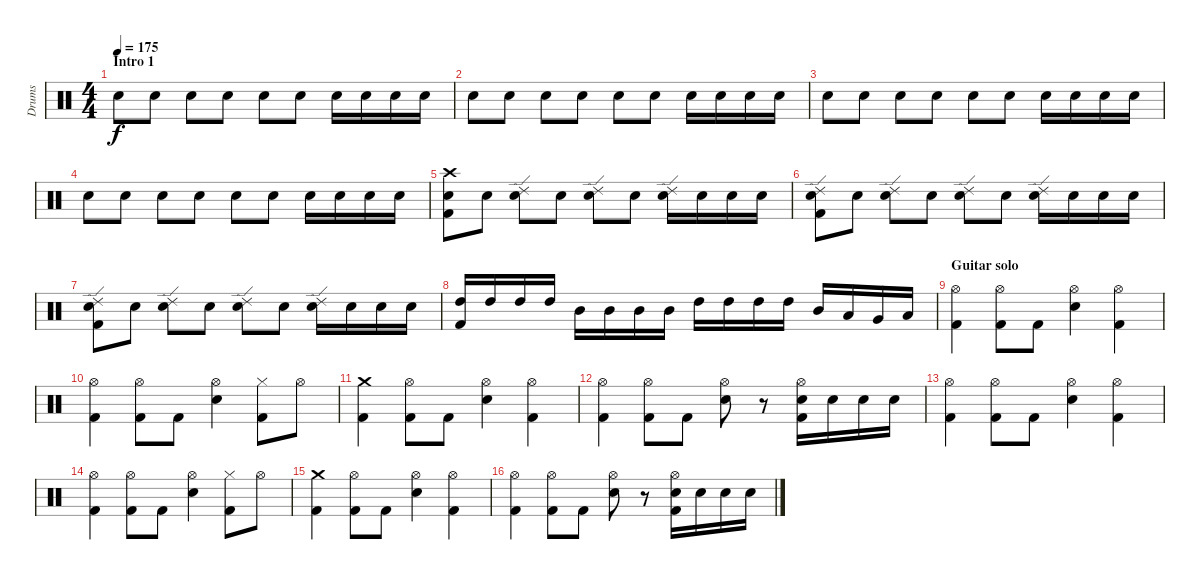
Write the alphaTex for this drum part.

\track ("Drums" "Drums") {instrument percussion}
\staff {score}
\articulation defaults
\ts (4 4)
\section ("" "Intro 1")
\tempo 175
\clef neutral
\ks c "Electric Snare (hit)".8{dy f} "Electric Snare (hit)".8 "Electric Snare (hit)".8 "Electric Snare (hit)".8 "Electric Snare (hit)".8 "Electric Snare (hit)".8 "Electric Snare (hit)".16 "Electric Snare (hit)".16 "Electric Snare (hit)".16 "Electric Snare (hit)".16
|
"Electric Snare (hit)".8 "Electric Snare (hit)".8 "Electric Snare (hit)".8 "Electric Snare (hit)".8 "Electric Snare (hit)".8 "Electric Snare (hit)".8 "Electric Snare (hit)".16 "Electric Snare (hit)".16 "Electric Snare (hit)".16 "Electric Snare (hit)".16 |
"Electric Snare (hit)".8 "Electric Snare (hit)".8 "Electric Snare (hit)".8 "Electric Snare (hit)".8 "Electric Snare (hit)".8 "Electric Snare (hit)".8 "Electric Snare (hit)".16 "Electric Snare (hit)".16 "Electric Snare (hit)".16 "Electric Snare (hit)".16 |
"Electric Snare (hit)".8 "Electric Snare (hit)".8 "Electric Snare (hit)".8 "Electric Snare (hit)".8 "Electric Snare (hit)".8 "Electric Snare (hit)".8 "Electric Snare (hit)".16 "Electric Snare (hit)".16 "Electric Snare (hit)".16 "Electric Snare (hit)".16 |
("Kick (hit) 2" "Electric Snare (hit)" "Crash high (hit)").8 "Electric Snare (hit)".8 ("Electric Snare (hit)" "Ride (edge) 2").8 "Electric Snare (hit)".8 ("Electric Snare (hit)" "Ride (edge) 2").8 "Electric Snare (hit)".8 ("Electric Snare (hit)" "Ride (edge) 2").16 "Electric Snare (hit)".16 "Electric Snare (hit)".16 "Electric Snare (hit)".16 |
("Kick (hit) 2" "Electric Snare (hit)" "Ride (edge) 2").8 "Electric Snare (hit)".8 ("Electric Snare (hit)" "Ride (edge) 2").8 "Electric Snare (hit)".8 ("Electric Snare (hit)" "Ride (edge) 2").8 "Electric Snare (hit)".8 ("Electric Snare (hit)" "Ride (edge) 2").16 "Electric Snare (hit)".16 "Electric Snare (hit)".16 "Electric Snare (hit)".16 |
("Kick (hit) 2" "Electric Snare (hit)" "Ride (edge) 2").8 "Electric Snare (hit)".8 ("Electric Snare (hit)" "Ride (edge) 2").8 "Electric Snare (hit)".8 ("Electric Snare (hit)" "Ride (edge) 2").8 "Electric Snare (hit)".8 ("Electric Snare (hit)" "Ride (edge) 2").16 "Electric Snare (hit)".16 "Electric Snare (hit)".16 "Electric Snare (hit)".16 |
("Kick (hit) 2" "High Tom (hit)").16 "High Tom (hit)".16 "High Tom (hit)".16 "High Tom (hit)".16 "Mid Tom (hit)".16 "Mid Tom (hit)".16 "Mid Tom (hit)".16 "Mid Tom (hit)".16 "High Tom (hit)".16 "High Tom (hit)".16 "High Tom (hit)".16 "High Tom (hit)".16 "Mid Tom (hit)".16 "Low Tom (hit)".16 "Very Low Tom (hit)".16 "Low Floor Tom (hit)".16 |
\section ("" "Guitar solo")
("Kick (hit) 2" "Hi-Hat (open)").4 ("Kick (hit) 2" "Hi-Hat (open)").8 "Kick (hit) 2".8 ("Electric Snare (hit)" "Hi-Hat (open)").4 ("Kick (hit) 2" "Hi-Hat (open)").4 |
("Kick (hit) 2" "Hi-Hat (open)").4 ("Kick (hit) 2" "Hi-Hat (open)").8 "Kick (hit) 2".8 ("Electric Snare (hit)" "Hi-Hat (open)").4 ("Kick (hit) 2" "Hi-Hat (closed)").8 "Hi-Hat (open)".8 |
("Kick (hit) 2" "Crash medium (hit)").4 ("Kick (hit) 2" "Hi-Hat (open)").8 "Kick (hit) 2".8 ("Electric Snare (hit)" "Hi-Hat (open)").4 ("Kick (hit) 2" "Hi-Hat (open)").4 |
("Kick (hit) 2" "Hi-Hat (open)").4 ("Kick (hit) 2" "Hi-Hat (open)").8 "Kick (hit) 2".8 ("Electric Snare (hit)" "Hi-Hat (open)").8 r.8 ("Kick (hit) 2" "Electric Snare (hit)" "Hi-Hat (open)").16 "Electric Snare (hit)".16 "Electric Snare (hit)".16 "Electric Snare (hit)".16 |
("Kick (hit) 2" "Hi-Hat (open)").4 ("Kick (hit) 2" "Hi-Hat (open)").8 "Kick (hit) 2".8 ("Electric Snare (hit)" "Hi-Hat (open)").4 ("Kick (hit) 2" "Hi-Hat (open)").4 |
("Kick (hit) 2" "Hi-Hat (open)").4 ("Kick (hit) 2" "Hi-Hat (open)").8 "Kick (hit) 2".8 ("Electric Snare (hit)" "Hi-Hat (open)").4 ("Kick (hit) 2" "Hi-Hat (closed)").8 "Hi-Hat (open)".8 |
("Kick (hit) 2" "Crash medium (hit)").4 ("Kick (hit) 2" "Hi-Hat (open)").8 "Kick (hit) 2".8 ("Electric Snare (hit)" "Hi-Hat (open)").4 ("Kick (hit) 2" "Hi-Hat (open)").4 |
("Kick (hit) 2" "Hi-Hat (open)").4 ("Kick (hit) 2" "Hi-Hat (open)").8 "Kick (hit) 2".8 ("Electric Snare (hit)" "Hi-Hat (open)").8 r.8 ("Kick (hit) 2" "Electric Snare (hit)" "Hi-Hat (open)").16 "Electric Snare (hit)".16 "Electric Snare (hit)".16 "Electric Snare (hit)".16
